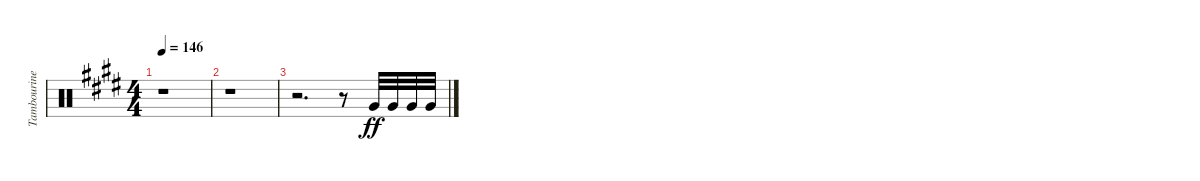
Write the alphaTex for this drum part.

\track ("Tambourine" "Tambourine") {instrument percussion}
\staff {score}
\articulation defaults
\ts (4 4)
\tempo 146
\clef neutral
\ks c#minor
r.1{dy ff} |
r.1 |
r.2{d} r.8 "Very Low Tom (hit)".32 "Very Low Tom (hit)".32 "Very Low Tom (hit)".32 "Very Low Tom (hit)".32
